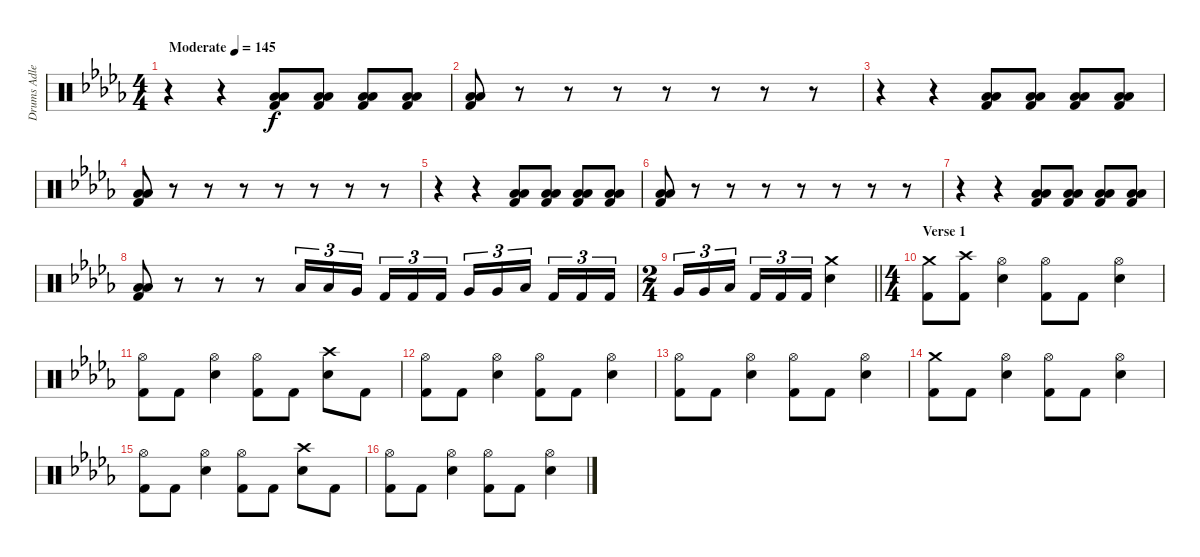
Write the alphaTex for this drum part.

\track ("Drums Adler" "Drums Adle") {instrument percussion}
\staff {score}
\articulation defaults
\ts (4 4)
\tempo (145 "Moderate")
\clef neutral
\ks db
r.4{dy f} r.4 ("Low Tom (hit)" "Low Floor Tom (hit)" "Kick (hit) 2").8 ("Low Tom (hit)" "Low Floor Tom (hit)" "Kick (hit) 2").8 ("Low Tom (hit)" "Low Floor Tom (hit)" "Kick (hit) 2").8 ("Low Tom (hit)" "Low Floor Tom (hit)" "Kick (hit) 2").8 |
("Low Tom (hit)" "Low Floor Tom (hit)" "Kick (hit) 2").8 r.8 r.8 r.8 r.8 r.8 r.8 r.8 |
r.4 r.4 ("Low Tom (hit)" "Low Floor Tom (hit)" "Kick (hit) 2").8 ("Low Tom (hit)" "Low Floor Tom (hit)" "Kick (hit) 2").8 ("Low Tom (hit)" "Low Floor Tom (hit)" "Kick (hit) 2").8 ("Low Tom (hit)" "Low Floor Tom (hit)" "Kick (hit) 2").8 |
("Low Tom (hit)" "Low Floor Tom (hit)" "Kick (hit) 2").8 r.8 r.8 r.8 r.8 r.8 r.8 r.8 |
r.4 r.4 ("Low Tom (hit)" "Low Floor Tom (hit)" "Kick (hit) 2").8 ("Low Tom (hit)" "Low Floor Tom (hit)" "Kick (hit) 2").8 ("Low Tom (hit)" "Low Floor Tom (hit)" "Kick (hit) 2").8 ("Low Tom (hit)" "Low Floor Tom (hit)" "Kick (hit) 2").8 |
("Low Tom (hit)" "Low Floor Tom (hit)" "Kick (hit) 2").8 r.8 r.8 r.8 r.8 r.8 r.8 r.8 |
r.4 r.4 ("Low Tom (hit)" "Low Floor Tom (hit)" "Kick (hit) 2").8 ("Low Tom (hit)" "Low Floor Tom (hit)" "Kick (hit) 2").8 ("Low Tom (hit)" "Low Floor Tom (hit)" "Kick (hit) 2").8 ("Low Tom (hit)" "Low Floor Tom (hit)" "Kick (hit) 2").8 |
("Low Tom (hit)" "Low Floor Tom (hit)" "Kick (hit) 2").8 r.8 r.8 r.8 "Low Tom (hit)".16{tu (3 2)} "Low Tom (hit)".16{tu (3 2)} "Very Low Tom (hit)".16{tu (3 2) beam splitsecondary} "Kick (hit) 2".16{tu (3 2)} "Kick (hit) 2".16{tu (3 2)} "Kick (hit) 2".16{tu (3 2)} "Very Low Tom (hit)".16{tu (3 2)} "Very Low Tom (hit)".16{tu (3 2)} "Low Floor Tom (hit)".16{tu (3 2) beam splitsecondary} "Kick (hit) 2".16{tu (3 2)} "Kick (hit) 2".16{tu (3 2)} "Kick (hit) 2".16{tu (3 2)} |
\ts (2 4)
\barLineRight lightlight "Very Low Tom (hit)".16{tu (3 2)} "Very Low Tom (hit)".16{tu (3 2)} "Low Floor Tom (hit)".16{tu (3 2) beam splitsecondary} "Kick (hit) 2".16{tu (3 2)} "Kick (hit) 2".16{tu (3 2)} "Kick (hit) 2".16{tu (3 2)}
("Crash medium (hit)" "Snare (hit) 2").4 |
\ts (4 4)
\section ("" "Verse 1")
("Crash medium (hit)" "Kick (hit) 2").8 ("Crash high (hit)" "Kick (hit) 2").8 ("Hi-Hat (open)" "Snare (hit) 2").4 ("Hi-Hat (open)" "Kick (hit) 2").8 "Kick (hit) 2".8 ("Hi-Hat (open)" "Snare (hit) 2").4 |
("Hi-Hat (open)" "Kick (hit) 2").8 "Kick (hit) 2".8 ("Hi-Hat (open)" "Snare (hit) 2").4 ("Hi-Hat (open)" "Kick (hit) 2").8 "Kick (hit) 2".8 ("Crash high (hit)" "Snare (hit) 2").8 "Kick (hit) 2".8 |
("Hi-Hat (open)" "Kick (hit) 2").8 "Kick (hit) 2".8 ("Hi-Hat (open)" "Snare (hit) 2").4 ("Hi-Hat (open)" "Kick (hit) 2").8 "Kick (hit) 2".8 ("Hi-Hat (open)" "Snare (hit) 2").4 |
("Hi-Hat (open)" "Kick (hit) 2").8 "Kick (hit) 2".8 ("Hi-Hat (open)" "Snare (hit) 2").4 ("Hi-Hat (open)" "Kick (hit) 2").8 "Kick (hit) 2".8 ("Hi-Hat (open)" "Snare (hit) 2").4 |
("Crash medium (hit)" "Kick (hit) 2").8 "Kick (hit) 2".8 ("Hi-Hat (open)" "Snare (hit) 2").4 ("Hi-Hat (open)" "Kick (hit) 2").8 "Kick (hit) 2".8 ("Hi-Hat (open)" "Snare (hit) 2").4 |
("Hi-Hat (open)" "Kick (hit) 2").8 "Kick (hit) 2".8 ("Hi-Hat (open)" "Snare (hit) 2").4 ("Hi-Hat (open)" "Kick (hit) 2").8 "Kick (hit) 2".8 ("Crash high (hit)" "Snare (hit) 2").8 "Kick (hit) 2".8 |
("Hi-Hat (open)" "Kick (hit) 2").8 "Kick (hit) 2".8 ("Hi-Hat (open)" "Snare (hit) 2").4 ("Hi-Hat (open)" "Kick (hit) 2").8 "Kick (hit) 2".8 ("Hi-Hat (open)" "Snare (hit) 2").4
